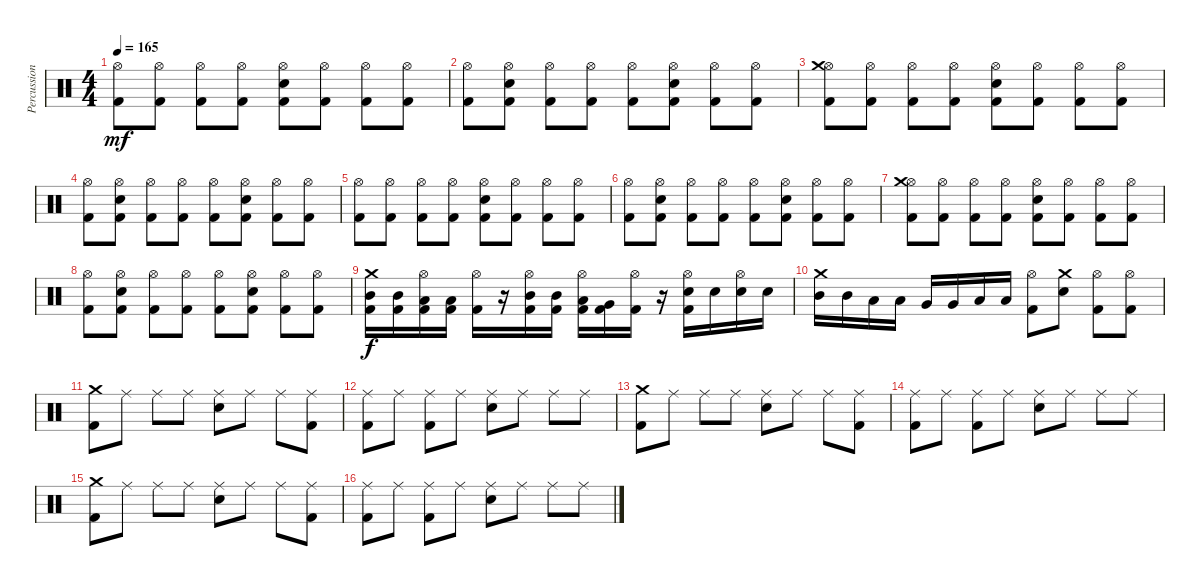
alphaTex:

\track ("Percussion" "Percussion") {instrument percussion}
\staff {score}
\articulation defaults
\ts (4 4)
\tempo 165
\clef neutral
\ks c
("Hi-Hat (open)" "Kick (hit) 2").8{dy mf} ("Hi-Hat (open)" "Kick (hit) 2").8 ("Hi-Hat (open)" "Kick (hit) 2").8 ("Hi-Hat (open)" "Kick (hit) 2").8 ("Hi-Hat (open)" "Electric Snare (hit)" "Kick (hit) 2").8 ("Hi-Hat (open)" "Kick (hit) 2").8 ("Hi-Hat (open)" "Kick (hit) 2").8 ("Hi-Hat (open)" "Kick (hit) 2").8 |
("Hi-Hat (open)" "Kick (hit) 2").8 ("Hi-Hat (open)" "Electric Snare (hit)" "Kick (hit) 2").8 ("Hi-Hat (open)" "Kick (hit) 2").8 ("Hi-Hat (open)" "Kick (hit) 2").8 ("Hi-Hat (open)" "Kick (hit) 2").8 ("Hi-Hat (open)" "Electric Snare (hit)" "Kick (hit) 2").8 ("Hi-Hat (open)" "Kick (hit) 2").8 ("Hi-Hat (open)" "Kick (hit) 2").8 |
("Hi-Hat (open)" "Crash medium (hit)" "Kick (hit) 2").8 ("Hi-Hat (open)" "Kick (hit) 2").8 ("Hi-Hat (open)" "Kick (hit) 2").8 ("Hi-Hat (open)" "Kick (hit) 2").8 ("Hi-Hat (open)" "Electric Snare (hit)" "Kick (hit) 2").8 ("Hi-Hat (open)" "Kick (hit) 2").8 ("Hi-Hat (open)" "Kick (hit) 2").8 ("Hi-Hat (open)" "Kick (hit) 2").8 |
("Hi-Hat (open)" "Kick (hit) 2").8 ("Hi-Hat (open)" "Electric Snare (hit)" "Kick (hit) 2").8 ("Hi-Hat (open)" "Kick (hit) 2").8 ("Hi-Hat (open)" "Kick (hit) 2").8 ("Hi-Hat (open)" "Kick (hit) 2").8 ("Hi-Hat (open)" "Electric Snare (hit)" "Kick (hit) 2").8 ("Hi-Hat (open)" "Kick (hit) 2").8 ("Hi-Hat (open)" "Kick (hit) 2").8 |
("Hi-Hat (open)" "Kick (hit) 2").8 ("Hi-Hat (open)" "Kick (hit) 2").8 ("Hi-Hat (open)" "Kick (hit) 2").8 ("Hi-Hat (open)" "Kick (hit) 2").8 ("Hi-Hat (open)" "Electric Snare (hit)" "Kick (hit) 2").8 ("Hi-Hat (open)" "Kick (hit) 2").8 ("Hi-Hat (open)" "Kick (hit) 2").8 ("Hi-Hat (open)" "Kick (hit) 2").8 |
("Hi-Hat (open)" "Kick (hit) 2").8 ("Hi-Hat (open)" "Electric Snare (hit)" "Kick (hit) 2").8 ("Hi-Hat (open)" "Kick (hit) 2").8 ("Hi-Hat (open)" "Kick (hit) 2").8 ("Hi-Hat (open)" "Kick (hit) 2").8 ("Hi-Hat (open)" "Electric Snare (hit)" "Kick (hit) 2").8 ("Hi-Hat (open)" "Kick (hit) 2").8 ("Hi-Hat (open)" "Kick (hit) 2").8 |
("Hi-Hat (open)" "Crash medium (hit)" "Kick (hit) 2").8 ("Hi-Hat (open)" "Kick (hit) 2").8 ("Hi-Hat (open)" "Kick (hit) 2").8 ("Hi-Hat (open)" "Kick (hit) 2").8 ("Hi-Hat (open)" "Electric Snare (hit)" "Kick (hit) 2").8 ("Hi-Hat (open)" "Kick (hit) 2").8 ("Hi-Hat (open)" "Kick (hit) 2").8 ("Hi-Hat (open)" "Kick (hit) 2").8 |
("Hi-Hat (open)" "Kick (hit) 2").8 ("Hi-Hat (open)" "Electric Snare (hit)" "Kick (hit) 2").8 ("Hi-Hat (open)" "Kick (hit) 2").8 ("Hi-Hat (open)" "Kick (hit) 2").8 ("Hi-Hat (open)" "Kick (hit) 2").8 ("Hi-Hat (open)" "Electric Snare (hit)" "Kick (hit) 2").8 ("Hi-Hat (open)" "Kick (hit) 2").8 ("Hi-Hat (open)" "Kick (hit) 2").8 |
("Crash medium (hit)" "Mid Tom (hit)" "Kick (hit) 2").16{dy f} ("Mid Tom (hit)" "Kick (hit) 2").16 ("Hi-Hat (open)" "Low Tom (hit)" "Kick (hit) 2").16 ("Low Tom (hit)" "Kick (hit) 2").16 ("Hi-Hat (open)" "Kick (hit) 2").16 r.16 ("Hi-Hat (open)" "Mid Tom (hit)" "Kick (hit) 2").16 ("Mid Tom (hit)" "Kick (hit) 2").16 ("Hi-Hat (open)" "Low Tom (hit)" "Kick (hit) 2").16 ("Very Low Tom (hit)" "Kick (hit) 2").16 ("Hi-Hat (open)" "Kick (hit) 2").16 r.16 ("Hi-Hat (open)" "Electric Snare (hit)" "Kick (hit) 2").16 "Electric Snare (hit)".16 ("Hi-Hat (open)" "Electric Snare (hit)").16 "Electric Snare (hit)".16 |
("Crash medium (hit)" "Mid Tom (hit)").16 "Mid Tom (hit)".16 "Low Tom (hit)".16 "Low Tom (hit)".16 "Very Low Tom (hit)".16 "Very Low Tom (hit)".16 "Low Floor Tom (hit)".16 "Low Floor Tom (hit)".16 ("Hi-Hat (open)" "Kick (hit) 2").8 ("Crash medium (hit)" "Electric Snare (hit)").8 ("Hi-Hat (open)" "Kick (hit) 2").8 ("Hi-Hat (open)" "Kick (hit) 2").8 |
("Crash medium (hit)" "Kick (hit) 2").8 "Ride (middle)".8 "Ride (middle)".8 "Ride (middle)".8 ("Ride (middle)" "Electric Snare (hit)").8 "Ride (middle)".8 "Ride (middle)".8 ("Ride (middle)" "Kick (hit) 2").8 |
("Ride (middle)" "Kick (hit) 2").8 "Ride (middle)".8 ("Ride (middle)" "Kick (hit) 2").8 "Ride (middle)".8 ("Ride (middle)" "Electric Snare (hit)").8 "Ride (middle)".8 "Ride (middle)".8 "Ride (middle)".8 |
("Crash medium (hit)" "Kick (hit) 2").8 "Ride (middle)".8 "Ride (middle)".8 "Ride (middle)".8 ("Ride (middle)" "Electric Snare (hit)").8 "Ride (middle)".8 "Ride (middle)".8 ("Ride (middle)" "Kick (hit) 2").8 |
("Ride (middle)" "Kick (hit) 2").8 "Ride (middle)".8 ("Ride (middle)" "Kick (hit) 2").8 "Ride (middle)".8 ("Ride (middle)" "Electric Snare (hit)").8 "Ride (middle)".8 "Ride (middle)".8 "Ride (middle)".8 |
("Crash medium (hit)" "Kick (hit) 2").8 "Ride (middle)".8 "Ride (middle)".8 "Ride (middle)".8 ("Ride (middle)" "Electric Snare (hit)").8 "Ride (middle)".8 "Ride (middle)".8 ("Ride (middle)" "Kick (hit) 2").8 |
("Ride (middle)" "Kick (hit) 2").8 "Ride (middle)".8 ("Ride (middle)" "Kick (hit) 2").8 "Ride (middle)".8 ("Ride (middle)" "Electric Snare (hit)").8 "Ride (middle)".8 "Ride (middle)".8 "Ride (middle)".8
